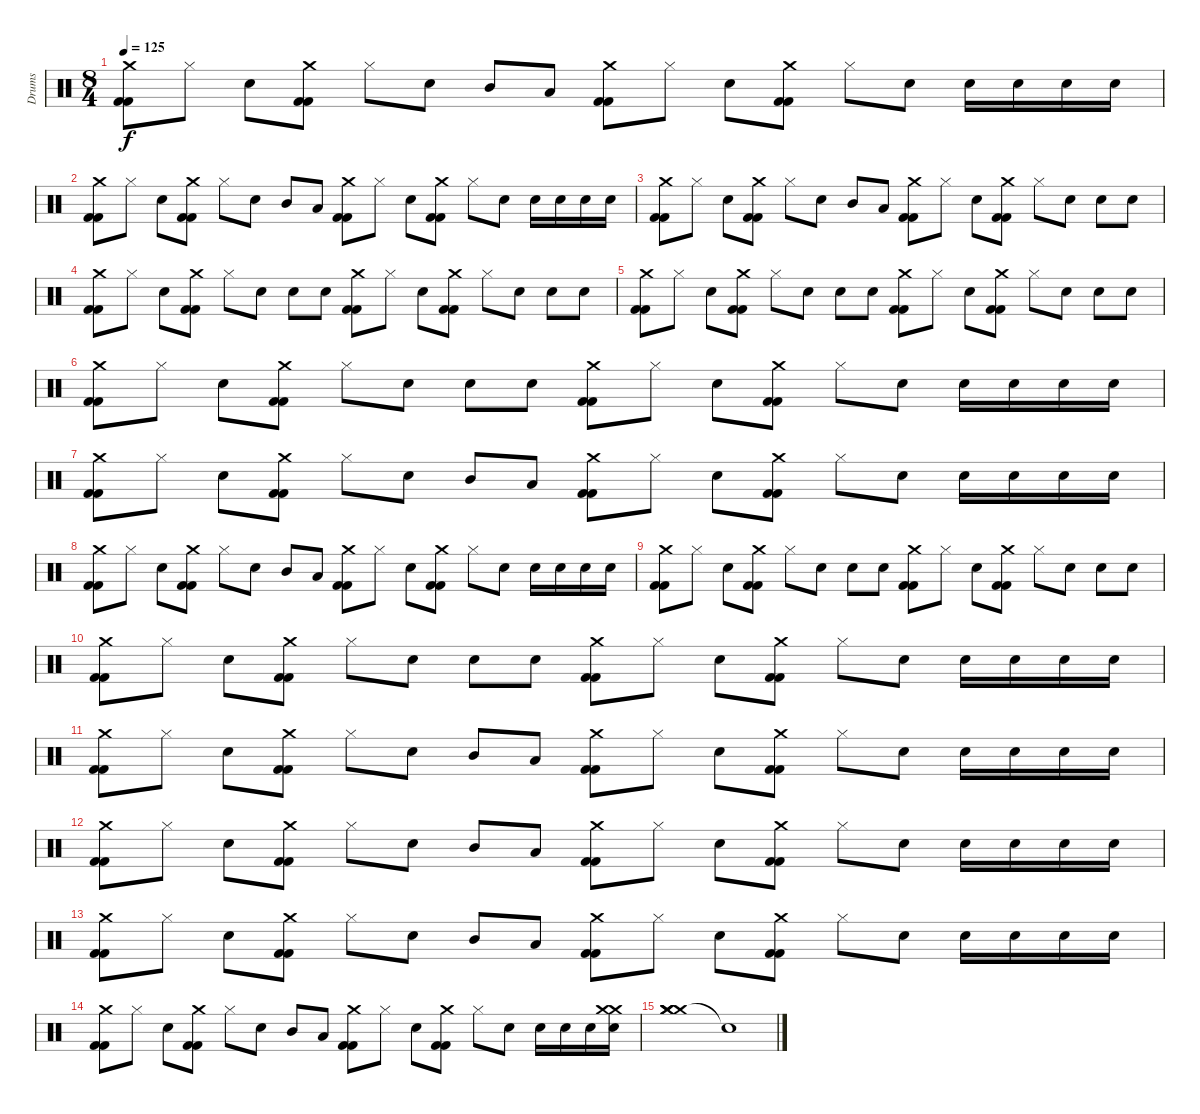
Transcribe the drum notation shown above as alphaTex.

\track ("Drums" "Drums") {instrument percussion}
\staff {score}
\articulation defaults
\ts (8 4)
\tempo 125
\clef neutral
\ks c
("Crash medium (hit)" "Kick (hit) 2" "Kick (hit) 2").8{dy f} "Hi-Hat (closed)".8 "Snare (hit) 2".8 ("Crash medium (hit)" "Kick (hit) 2" "Kick (hit) 2").8 "Hi-Hat (closed)".8 "Snare (hit) 2".8 "Mid Tom (hit)".8 "Low Tom (hit)".8 ("Crash medium (hit)" "Kick (hit) 2" "Kick (hit) 2").8 "Hi-Hat (closed)".8 "Snare (hit) 2".8 ("Crash medium (hit)" "Kick (hit) 2" "Kick (hit) 2").8 "Hi-Hat (closed)".8 "Snare (hit) 2".8 "Snare (hit) 2".16 "Snare (hit) 2".16 "Snare (hit) 2".16 "Snare (hit) 2".16 |
("Crash medium (hit)" "Kick (hit) 2" "Kick (hit) 2").8 "Hi-Hat (closed)".8 "Snare (hit) 2".8 ("Crash medium (hit)" "Kick (hit) 2" "Kick (hit) 2").8 "Hi-Hat (closed)".8 "Snare (hit) 2".8 "Mid Tom (hit)".8 "Low Tom (hit)".8 ("Crash medium (hit)" "Kick (hit) 2" "Kick (hit) 2").8 "Hi-Hat (closed)".8 "Snare (hit) 2".8 ("Crash medium (hit)" "Kick (hit) 2" "Kick (hit) 2").8 "Hi-Hat (closed)".8 "Snare (hit) 2".8 "Snare (hit) 2".16 "Snare (hit) 2".16 "Snare (hit) 2".16 "Snare (hit) 2".16 |
("Crash medium (hit)" "Kick (hit) 2" "Kick (hit) 2").8 "Hi-Hat (closed)".8 "Snare (hit) 2".8 ("Crash medium (hit)" "Kick (hit) 2" "Kick (hit) 2").8 "Hi-Hat (closed)".8 "Snare (hit) 2".8 "Mid Tom (hit)".8 "Low Tom (hit)".8 ("Crash medium (hit)" "Kick (hit) 2" "Kick (hit) 2").8 "Hi-Hat (closed)".8 "Snare (hit) 2".8 ("Crash medium (hit)" "Kick (hit) 2" "Kick (hit) 2").8 "Hi-Hat (closed)".8 "Snare (hit) 2".8 "Snare (hit) 2".8 "Snare (hit) 2".8 |
("Crash medium (hit)" "Kick (hit) 2" "Kick (hit) 2").8 "Hi-Hat (closed)".8 "Snare (hit) 2".8 ("Crash medium (hit)" "Kick (hit) 2" "Kick (hit) 2").8 "Hi-Hat (closed)".8 "Snare (hit) 2".8 "Snare (hit) 2".8 "Snare (hit) 2".8 ("Crash medium (hit)" "Kick (hit) 2" "Kick (hit) 2").8 "Hi-Hat (closed)".8 "Snare (hit) 2".8 ("Crash medium (hit)" "Kick (hit) 2" "Kick (hit) 2").8 "Hi-Hat (closed)".8 "Snare (hit) 2".8 "Snare (hit) 2".8 "Snare (hit) 2".8 |
("Crash medium (hit)" "Kick (hit) 2" "Kick (hit) 2").8 "Hi-Hat (closed)".8 "Snare (hit) 2".8 ("Crash medium (hit)" "Kick (hit) 2" "Kick (hit) 2").8 "Hi-Hat (closed)".8 "Snare (hit) 2".8 "Snare (hit) 2".8 "Snare (hit) 2".8 ("Crash medium (hit)" "Kick (hit) 2" "Kick (hit) 2").8 "Hi-Hat (closed)".8 "Snare (hit) 2".8 ("Crash medium (hit)" "Kick (hit) 2" "Kick (hit) 2").8 "Hi-Hat (closed)".8 "Snare (hit) 2".8 "Snare (hit) 2".8 "Snare (hit) 2".8 |
("Crash medium (hit)" "Kick (hit) 2" "Kick (hit) 2").8 "Hi-Hat (closed)".8 "Snare (hit) 2".8 ("Crash medium (hit)" "Kick (hit) 2" "Kick (hit) 2").8 "Hi-Hat (closed)".8 "Snare (hit) 2".8 "Snare (hit) 2".8 "Snare (hit) 2".8 ("Crash medium (hit)" "Kick (hit) 2" "Kick (hit) 2").8 "Hi-Hat (closed)".8 "Snare (hit) 2".8 ("Crash medium (hit)" "Kick (hit) 2" "Kick (hit) 2").8 "Hi-Hat (closed)".8 "Snare (hit) 2".8 "Snare (hit) 2".16 "Snare (hit) 2".16 "Snare (hit) 2".16 "Snare (hit) 2".16 |
("Crash medium (hit)" "Kick (hit) 2" "Kick (hit) 2").8 "Hi-Hat (closed)".8 "Snare (hit) 2".8 ("Crash medium (hit)" "Kick (hit) 2" "Kick (hit) 2").8 "Hi-Hat (closed)".8 "Snare (hit) 2".8 "Mid Tom (hit)".8 "Low Tom (hit)".8 ("Crash medium (hit)" "Kick (hit) 2" "Kick (hit) 2").8 "Hi-Hat (closed)".8 "Snare (hit) 2".8 ("Crash medium (hit)" "Kick (hit) 2" "Kick (hit) 2").8 "Hi-Hat (closed)".8 "Snare (hit) 2".8 "Snare (hit) 2".16 "Snare (hit) 2".16 "Snare (hit) 2".16 "Snare (hit) 2".16 |
("Crash medium (hit)" "Kick (hit) 2" "Kick (hit) 2").8 "Hi-Hat (closed)".8 "Snare (hit) 2".8 ("Crash medium (hit)" "Kick (hit) 2" "Kick (hit) 2").8 "Hi-Hat (closed)".8 "Snare (hit) 2".8 "Mid Tom (hit)".8 "Low Tom (hit)".8 ("Crash medium (hit)" "Kick (hit) 2" "Kick (hit) 2").8 "Hi-Hat (closed)".8 "Snare (hit) 2".8 ("Crash medium (hit)" "Kick (hit) 2" "Kick (hit) 2").8 "Hi-Hat (closed)".8 "Snare (hit) 2".8 "Snare (hit) 2".16 "Snare (hit) 2".16 "Snare (hit) 2".16 "Snare (hit) 2".16 |
("Crash medium (hit)" "Kick (hit) 2" "Kick (hit) 2").8 "Hi-Hat (closed)".8 "Snare (hit) 2".8 ("Crash medium (hit)" "Kick (hit) 2" "Kick (hit) 2").8 "Hi-Hat (closed)".8 "Snare (hit) 2".8 "Snare (hit) 2".8 "Snare (hit) 2".8 ("Crash medium (hit)" "Kick (hit) 2" "Kick (hit) 2").8 "Hi-Hat (closed)".8 "Snare (hit) 2".8 ("Crash medium (hit)" "Kick (hit) 2" "Kick (hit) 2").8 "Hi-Hat (closed)".8 "Snare (hit) 2".8 "Snare (hit) 2".8 "Snare (hit) 2".8 |
("Crash medium (hit)" "Kick (hit) 2" "Kick (hit) 2").8 "Hi-Hat (closed)".8 "Snare (hit) 2".8 ("Crash medium (hit)" "Kick (hit) 2" "Kick (hit) 2").8 "Hi-Hat (closed)".8 "Snare (hit) 2".8 "Snare (hit) 2".8 "Snare (hit) 2".8 ("Crash medium (hit)" "Kick (hit) 2" "Kick (hit) 2").8 "Hi-Hat (closed)".8 "Snare (hit) 2".8 ("Crash medium (hit)" "Kick (hit) 2" "Kick (hit) 2").8 "Hi-Hat (closed)".8 "Snare (hit) 2".8 "Snare (hit) 2".16 "Snare (hit) 2".16 "Snare (hit) 2".16 "Snare (hit) 2".16 |
("Crash medium (hit)" "Kick (hit) 2" "Kick (hit) 2").8 "Hi-Hat (closed)".8 "Snare (hit) 2".8 ("Crash medium (hit)" "Kick (hit) 2" "Kick (hit) 2").8 "Hi-Hat (closed)".8 "Snare (hit) 2".8 "Mid Tom (hit)".8 "Low Tom (hit)".8 ("Crash medium (hit)" "Kick (hit) 2" "Kick (hit) 2").8 "Hi-Hat (closed)".8 "Snare (hit) 2".8 ("Crash medium (hit)" "Kick (hit) 2" "Kick (hit) 2").8 "Hi-Hat (closed)".8 "Snare (hit) 2".8 "Snare (hit) 2".16 "Snare (hit) 2".16 "Snare (hit) 2".16 "Snare (hit) 2".16 |
("Crash medium (hit)" "Kick (hit) 2" "Kick (hit) 2").8 "Hi-Hat (closed)".8 "Snare (hit) 2".8 ("Crash medium (hit)" "Kick (hit) 2" "Kick (hit) 2").8 "Hi-Hat (closed)".8 "Snare (hit) 2".8 "Mid Tom (hit)".8 "Low Tom (hit)".8 ("Crash medium (hit)" "Kick (hit) 2" "Kick (hit) 2").8 "Hi-Hat (closed)".8 "Snare (hit) 2".8 ("Crash medium (hit)" "Kick (hit) 2" "Kick (hit) 2").8 "Hi-Hat (closed)".8 "Snare (hit) 2".8 "Snare (hit) 2".16 "Snare (hit) 2".16 "Snare (hit) 2".16 "Snare (hit) 2".16 |
("Crash medium (hit)" "Kick (hit) 2" "Kick (hit) 2").8 "Hi-Hat (closed)".8 "Snare (hit) 2".8 ("Crash medium (hit)" "Kick (hit) 2" "Kick (hit) 2").8 "Hi-Hat (closed)".8 "Snare (hit) 2".8 "Mid Tom (hit)".8 "Low Tom (hit)".8 ("Crash medium (hit)" "Kick (hit) 2" "Kick (hit) 2").8 "Hi-Hat (closed)".8 "Snare (hit) 2".8 ("Crash medium (hit)" "Kick (hit) 2" "Kick (hit) 2").8 "Hi-Hat (closed)".8 "Snare (hit) 2".8 "Snare (hit) 2".16 "Snare (hit) 2".16 "Snare (hit) 2".16 "Snare (hit) 2".16 |
("Crash medium (hit)" "Kick (hit) 2" "Kick (hit) 2").8 "Hi-Hat (closed)".8 "Snare (hit) 2".8 ("Crash medium (hit)" "Kick (hit) 2" "Kick (hit) 2").8 "Hi-Hat (closed)".8 "Snare (hit) 2".8 "Mid Tom (hit)".8 "Low Tom (hit)".8 ("Crash medium (hit)" "Kick (hit) 2" "Kick (hit) 2").8 "Hi-Hat (closed)".8 "Snare (hit) 2".8 ("Crash medium (hit)" "Kick (hit) 2" "Kick (hit) 2").8 "Hi-Hat (closed)".8 "Snare (hit) 2".8 "Snare (hit) 2".16 "Snare (hit) 2".16 "Snare (hit) 2".16 ("Crash medium (hit)" "Crash medium (hit)" "Snare (hit) 2").16 |
("Crash medium (hit)" "Crash medium (hit)" "Crash medium (hit)" "Crash medium (hit)").1 "Snare (hit)"{t}.1
